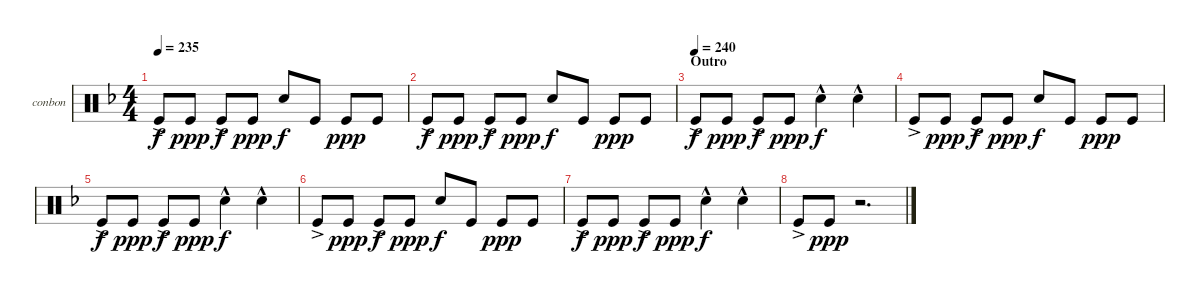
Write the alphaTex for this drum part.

\defaultSystemsLayout 4
\bracketExtendMode groupsimilarinstruments
\firstSystemTrackNameOrientation horizontal
\otherSystemsTrackNameOrientation horizontal
\track ("Bongos N Congas" "conbon") {instrument percussion}
\staff {score}
\articulation defaults
\ts (4 4)
\tempo 235
\clef neutral
\ks dminor "Kick (hit)"{ac}.8{dy f} "Kick (hit)".8{dy ppp} "Kick (hit)"{ac}.8{dy f} "Kick (hit)".8{dy ppp} "Snare (hit) 2".8{dy f} "Kick (hit)".8 "Kick (hit)".8{dy ppp} "Kick (hit)".8
|
"Kick (hit)"{ac}.8{dy f} "Kick (hit)".8{dy ppp} "Kick (hit)"{ac}.8{dy f} "Kick (hit)".8{dy ppp} "Snare (hit) 2".8{dy f} "Kick (hit)".8 "Kick (hit)".8{dy ppp} "Kick (hit)".8 |
\section ("" "Outro")
\tempo (240)
"Kick (hit)"{ac}.8{dy f} "Kick (hit)".8{dy ppp} "Kick (hit)"{ac}.8{dy f} "Kick (hit)".8{dy ppp} "Snare (hit) 2"{hac}.4{dy f} "Snare (hit) 2"{hac}.4 |
"Kick (hit)"{ac}.8 "Kick (hit)".8{dy ppp} "Kick (hit)"{ac}.8{dy f} "Kick (hit)".8{dy ppp} "Snare (hit) 2".8{dy f} "Kick (hit)".8 "Kick (hit)".8{dy ppp} "Kick (hit)".8 |
"Kick (hit)"{ac}.8{dy f} "Kick (hit)".8{dy ppp} "Kick (hit)"{ac}.8{dy f} "Kick (hit)".8{dy ppp} "Snare (hit) 2"{hac}.4{dy f} "Snare (hit) 2"{hac}.4 |
"Kick (hit)"{ac}.8 "Kick (hit)".8{dy ppp} "Kick (hit)"{ac}.8{dy f} "Kick (hit)".8{dy ppp} "Snare (hit) 2".8{dy f} "Kick (hit)".8 "Kick (hit)".8{dy ppp} "Kick (hit)".8 |
"Kick (hit)"{ac}.8{dy f} "Kick (hit)".8{dy ppp} "Kick (hit)"{ac}.8{dy f} "Kick (hit)".8{dy ppp} "Snare (hit) 2"{hac}.4{dy f} "Snare (hit) 2"{hac}.4 |
"Kick (hit)"{ac}.8 "Kick (hit)".8{dy ppp} r.2{d}
